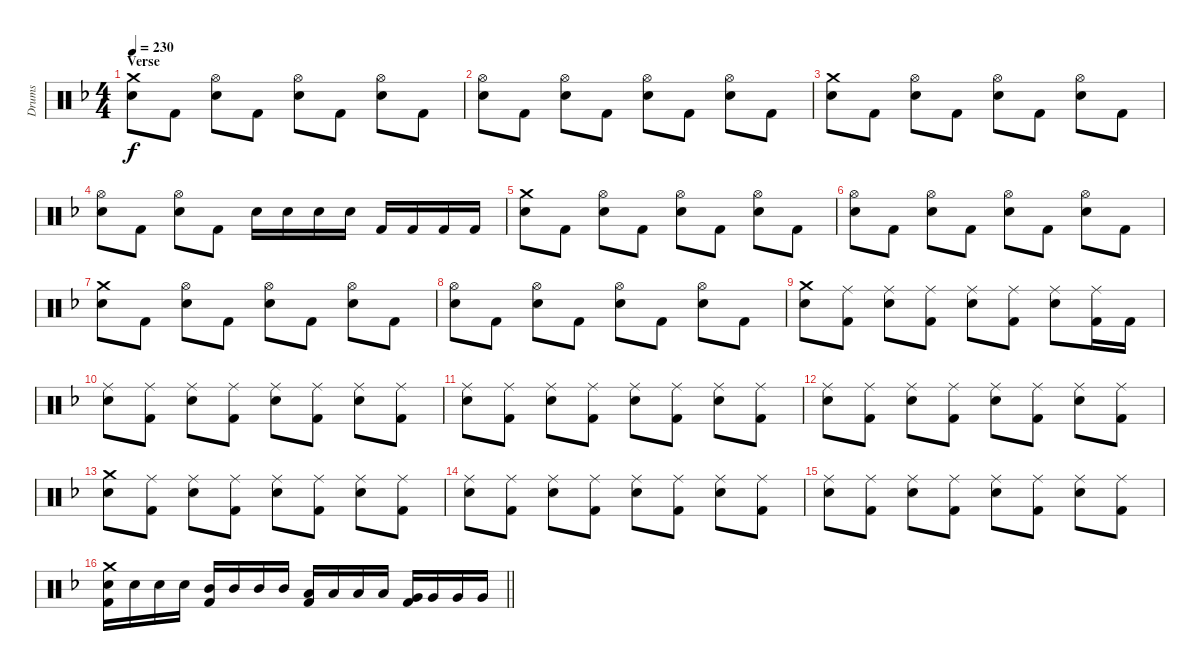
\track ("Drums" "Drums") {instrument percussion}
\staff {score}
\articulation defaults
\ts (4 4)
\section ("" "Verse")
\tempo 230
\clef neutral
\ks f
("Crash medium (hit)" "Snare (hit) 2").8{dy f} "Kick (hit) 2".8 ("Hi-Hat (open)" "Snare (hit) 2").8 "Kick (hit) 2".8 ("Hi-Hat (open)" "Snare (hit) 2").8 "Kick (hit) 2".8 ("Hi-Hat (open)" "Snare (hit) 2").8 "Kick (hit) 2".8 |
("Hi-Hat (open)" "Snare (hit) 2").8 "Kick (hit) 2".8 ("Hi-Hat (open)" "Snare (hit) 2").8 "Kick (hit) 2".8 ("Hi-Hat (open)" "Snare (hit) 2").8 "Kick (hit) 2".8 ("Hi-Hat (open)" "Snare (hit) 2").8 "Kick (hit) 2".8 |
("Crash medium (hit)" "Snare (hit) 2").8 "Kick (hit) 2".8 ("Hi-Hat (open)" "Snare (hit) 2").8 "Kick (hit) 2".8 ("Hi-Hat (open)" "Snare (hit) 2").8 "Kick (hit) 2".8 ("Hi-Hat (open)" "Snare (hit) 2").8 "Kick (hit) 2".8 |
("Hi-Hat (open)" "Snare (hit) 2").8 "Kick (hit) 2".8 ("Hi-Hat (open)" "Snare (hit) 2").8 "Kick (hit) 2".8 "Snare (hit) 2".16 "Snare (hit) 2".16 "Snare (hit) 2".16 "Snare (hit) 2".16 "Kick (hit) 2".16 "Kick (hit) 2".16 "Kick (hit) 2".16 "Kick (hit) 2".16 |
("Crash medium (hit)" "Snare (hit) 2").8 "Kick (hit) 2".8 ("Hi-Hat (open)" "Snare (hit) 2").8 "Kick (hit) 2".8 ("Hi-Hat (open)" "Snare (hit) 2").8 "Kick (hit) 2".8 ("Hi-Hat (open)" "Snare (hit) 2").8 "Kick (hit) 2".8 |
("Hi-Hat (open)" "Snare (hit) 2").8 "Kick (hit) 2".8 ("Hi-Hat (open)" "Snare (hit) 2").8 "Kick (hit) 2".8 ("Hi-Hat (open)" "Snare (hit) 2").8 "Kick (hit) 2".8 ("Hi-Hat (open)" "Snare (hit) 2").8 "Kick (hit) 2".8 |
("Crash medium (hit)" "Snare (hit) 2").8 "Kick (hit) 2".8 ("Hi-Hat (open)" "Snare (hit) 2").8 "Kick (hit) 2".8 ("Hi-Hat (open)" "Snare (hit) 2").8 "Kick (hit) 2".8 ("Hi-Hat (open)" "Snare (hit) 2").8 "Kick (hit) 2".8 |
("Hi-Hat (open)" "Snare (hit) 2").8 "Kick (hit) 2".8 ("Hi-Hat (open)" "Snare (hit) 2").8 "Kick (hit) 2".8 ("Hi-Hat (open)" "Snare (hit) 2").8 "Kick (hit) 2".8 ("Hi-Hat (open)" "Snare (hit) 2").8 "Kick (hit) 2".8 |
("Crash medium (hit)" "Snare (hit) 2").8 ("Ride (middle)" "Kick (hit) 2").8 ("Ride (middle)" "Snare (hit) 2").8 ("Ride (middle)" "Kick (hit) 2").8 ("Ride (middle)" "Snare (hit) 2").8 ("Ride (middle)" "Kick (hit) 2").8 ("Ride (middle)" "Snare (hit) 2").8 ("Ride (middle)" "Kick (hit) 2").16 "Kick (hit) 2".16 |
("Ride (middle)" "Snare (hit) 2").8 ("Ride (middle)" "Kick (hit) 2").8 ("Ride (middle)" "Snare (hit) 2").8 ("Ride (middle)" "Kick (hit) 2").8 ("Ride (middle)" "Snare (hit) 2").8 ("Ride (middle)" "Kick (hit) 2").8 ("Ride (middle)" "Snare (hit) 2").8 ("Ride (middle)" "Kick (hit) 2").8 |
("Ride (middle)" "Snare (hit) 2").8 ("Ride (middle)" "Kick (hit) 2").8 ("Ride (middle)" "Snare (hit) 2").8 ("Ride (middle)" "Kick (hit) 2").8 ("Ride (middle)" "Snare (hit) 2").8 ("Ride (middle)" "Kick (hit) 2").8 ("Ride (middle)" "Snare (hit) 2").8 ("Ride (middle)" "Kick (hit) 2").8 |
("Ride (middle)" "Snare (hit) 2").8 ("Ride (middle)" "Kick (hit) 2").8 ("Ride (middle)" "Snare (hit) 2").8 ("Ride (middle)" "Kick (hit) 2").8 ("Ride (middle)" "Snare (hit) 2").8 ("Ride (middle)" "Kick (hit) 2").8 ("Ride (middle)" "Snare (hit) 2").8 ("Ride (middle)" "Kick (hit) 2").8 |
("Crash medium (hit)" "Snare (hit) 2").8 ("Ride (middle)" "Kick (hit) 2").8 ("Ride (middle)" "Snare (hit) 2").8 ("Ride (middle)" "Kick (hit) 2").8 ("Ride (middle)" "Snare (hit) 2").8 ("Ride (middle)" "Kick (hit) 2").8 ("Ride (middle)" "Snare (hit) 2").8 ("Ride (middle)" "Kick (hit) 2").8 |
("Ride (middle)" "Snare (hit) 2").8 ("Ride (middle)" "Kick (hit) 2").8 ("Ride (middle)" "Snare (hit) 2").8 ("Ride (middle)" "Kick (hit) 2").8 ("Ride (middle)" "Snare (hit) 2").8 ("Ride (middle)" "Kick (hit) 2").8 ("Ride (middle)" "Snare (hit) 2").8 ("Ride (middle)" "Kick (hit) 2").8 |
("Ride (middle)" "Snare (hit) 2").8 ("Ride (middle)" "Kick (hit) 2").8 ("Ride (middle)" "Snare (hit) 2").8 ("Ride (middle)" "Kick (hit) 2").8 ("Ride (middle)" "Snare (hit) 2").8 ("Ride (middle)" "Kick (hit) 2").8 ("Ride (middle)" "Snare (hit) 2").8 ("Ride (middle)" "Kick (hit) 2").8 |
\barLineRight lightlight
("Crash medium (hit)" "Snare (hit) 2" "Kick (hit) 2").16 "Snare (hit) 2".16 "Snare (hit) 2".16 "Snare (hit) 2".16 ("Mid Tom (hit)" "Kick (hit) 2").16 "Mid Tom (hit)".16 "Mid Tom (hit)".16 "Mid Tom (hit)".16 ("Low Tom (hit)" "Kick (hit) 2").16 "Low Tom (hit)".16 "Low Tom (hit)".16 "Low Tom (hit)".16 ("Very Low Tom (hit)" "Kick (hit) 2").16 "Very Low Tom (hit)".16 "Very Low Tom (hit)".16 "Very Low Tom (hit)".16
